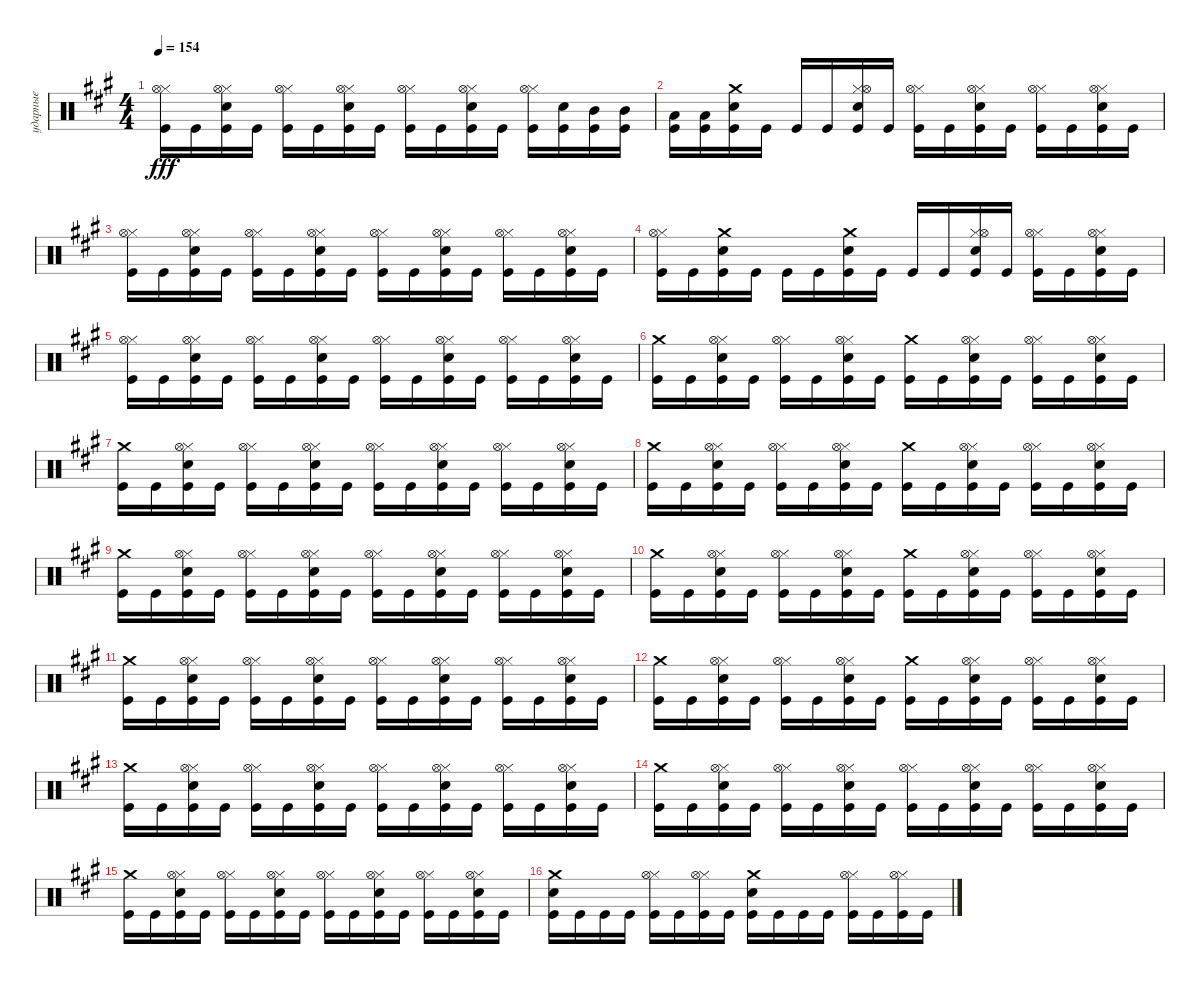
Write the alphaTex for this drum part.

\track ("ударные" "ударные") {instrument percussion}
\staff {score}
\articulation defaults
\ts (4 4)
\tempo 154
\clef neutral
\ks f#minor
("Kick (hit)" "Hi-Hat (closed)" "Hi-Hat (open)").16{dy fff} "Kick (hit)".16 ("Kick (hit)" "Snare (hit) 2" "Hi-Hat (closed)" "Hi-Hat (open)").16 "Kick (hit)".16 ("Kick (hit)" "Hi-Hat (closed)" "Hi-Hat (open)").16 "Kick (hit)".16 ("Kick (hit)" "Snare (hit) 2" "Hi-Hat (closed)" "Hi-Hat (open)").16 "Kick (hit)".16 ("Kick (hit)" "Hi-Hat (closed)" "Hi-Hat (open)").16 "Kick (hit)".16 ("Kick (hit)" "Snare (hit) 2" "Hi-Hat (closed)" "Hi-Hat (open)").16 "Kick (hit)".16 ("Hi-Hat (closed)" "Kick (hit)" "Hi-Hat (open)").16 ("Snare (hit) 2" "Kick (hit)").16 ("Mid Tom (hit)" "Kick (hit)").16 ("Mid Tom (hit)" "Kick (hit)").16 |
("Low Tom (hit)" "Kick (hit)").16 ("Low Tom (hit)" "Kick (hit)").16 ("Crash medium (hit)" "Kick (hit)" "Snare (hit) 2").16 "Kick (hit)".16 "Kick (hit)".16 "Kick (hit)".16 ("Kick (hit)" "Snare (hit) 2" "Hi-Hat (closed)" "Hi-Hat (open)").16 "Kick (hit)".16 ("Kick (hit)" "Hi-Hat (closed)" "Hi-Hat (open)").16 "Kick (hit)".16 ("Kick (hit)" "Snare (hit) 2" "Hi-Hat (closed)" "Hi-Hat (open)").16 "Kick (hit)".16 ("Kick (hit)" "Hi-Hat (closed)" "Hi-Hat (open)").16 "Kick (hit)".16 ("Kick (hit)" "Snare (hit) 2" "Hi-Hat (closed)" "Hi-Hat (open)").16 "Kick (hit)".16 |
("Kick (hit)" "Hi-Hat (closed)" "Hi-Hat (open)").16 "Kick (hit)".16 ("Kick (hit)" "Snare (hit) 2" "Hi-Hat (closed)" "Hi-Hat (open)").16 "Kick (hit)".16 ("Kick (hit)" "Hi-Hat (closed)" "Hi-Hat (open)").16 "Kick (hit)".16 ("Kick (hit)" "Snare (hit) 2" "Hi-Hat (closed)" "Hi-Hat (open)").16 "Kick (hit)".16 ("Kick (hit)" "Hi-Hat (closed)" "Hi-Hat (open)").16 "Kick (hit)".16 ("Kick (hit)" "Snare (hit) 2" "Hi-Hat (closed)" "Hi-Hat (open)").16 "Kick (hit)".16 ("Kick (hit)" "Hi-Hat (closed)" "Hi-Hat (open)").16 "Kick (hit)".16 ("Kick (hit)" "Snare (hit) 2" "Hi-Hat (closed)" "Hi-Hat (open)").16 "Kick (hit)".16 |
("Kick (hit)" "Hi-Hat (closed)" "Hi-Hat (open)").16 "Kick (hit)".16 ("Crash medium (hit)" "Kick (hit)" "Snare (hit) 2").16 "Kick (hit)".16 "Kick (hit)".16 "Kick (hit)".16 ("Crash medium (hit)" "Kick (hit)" "Snare (hit) 2").16 "Kick (hit)".16 "Kick (hit)".16 "Kick (hit)".16 ("Kick (hit)" "Snare (hit) 2" "Hi-Hat (closed)" "Hi-Hat (open)").16 "Kick (hit)".16 ("Kick (hit)" "Hi-Hat (closed)" "Hi-Hat (open)").16 "Kick (hit)".16 ("Kick (hit)" "Snare (hit) 2" "Hi-Hat (closed)" "Hi-Hat (open)").16 "Kick (hit)".16 |
("Kick (hit)" "Hi-Hat (closed)" "Hi-Hat (open)").16 "Kick (hit)".16 ("Kick (hit)" "Snare (hit) 2" "Hi-Hat (closed)" "Hi-Hat (open)").16 "Kick (hit)".16 ("Kick (hit)" "Hi-Hat (closed)" "Hi-Hat (open)").16 "Kick (hit)".16 ("Kick (hit)" "Snare (hit) 2" "Hi-Hat (closed)" "Hi-Hat (open)").16 "Kick (hit)".16 ("Kick (hit)" "Hi-Hat (closed)" "Hi-Hat (open)").16 "Kick (hit)".16 ("Kick (hit)" "Snare (hit) 2" "Hi-Hat (closed)" "Hi-Hat (open)").16 "Kick (hit)".16 ("Kick (hit)" "Hi-Hat (closed)" "Hi-Hat (open)").16 "Kick (hit)".16 ("Kick (hit)" "Snare (hit) 2" "Hi-Hat (closed)" "Hi-Hat (open)").16 "Kick (hit)".16 |
("Crash medium (hit)" "Kick (hit)").16 "Kick (hit)".16 ("Kick (hit)" "Snare (hit) 2" "Hi-Hat (closed)" "Hi-Hat (open)").16 "Kick (hit)".16 ("Kick (hit)" "Hi-Hat (closed)" "Hi-Hat (open)").16 "Kick (hit)".16 ("Kick (hit)" "Snare (hit) 2" "Hi-Hat (closed)" "Hi-Hat (open)").16 "Kick (hit)".16 ("Crash medium (hit)" "Kick (hit)").16 "Kick (hit)".16 ("Kick (hit)" "Snare (hit) 2" "Hi-Hat (closed)" "Hi-Hat (open)").16 "Kick (hit)".16 ("Kick (hit)" "Hi-Hat (closed)" "Hi-Hat (open)").16 "Kick (hit)".16 ("Kick (hit)" "Snare (hit) 2" "Hi-Hat (closed)" "Hi-Hat (open)").16 "Kick (hit)".16 |
("Crash medium (hit)" "Kick (hit)").16 "Kick (hit)".16 ("Kick (hit)" "Snare (hit) 2" "Hi-Hat (closed)" "Hi-Hat (open)").16 "Kick (hit)".16 ("Kick (hit)" "Hi-Hat (closed)" "Hi-Hat (open)").16 "Kick (hit)".16 ("Kick (hit)" "Snare (hit) 2" "Hi-Hat (closed)" "Hi-Hat (open)").16 "Kick (hit)".16 ("Kick (hit)" "Hi-Hat (closed)" "Hi-Hat (open)").16 "Kick (hit)".16 ("Kick (hit)" "Snare (hit) 2" "Hi-Hat (closed)" "Hi-Hat (open)").16 "Kick (hit)".16 ("Kick (hit)" "Hi-Hat (closed)" "Hi-Hat (open)").16 "Kick (hit)".16 ("Kick (hit)" "Snare (hit) 2" "Hi-Hat (closed)" "Hi-Hat (open)").16 "Kick (hit)".16 |
("Crash medium (hit)" "Kick (hit)").16 "Kick (hit)".16 ("Kick (hit)" "Snare (hit) 2" "Hi-Hat (closed)" "Hi-Hat (open)").16 "Kick (hit)".16 ("Kick (hit)" "Hi-Hat (closed)" "Hi-Hat (open)").16 "Kick (hit)".16 ("Kick (hit)" "Snare (hit) 2" "Hi-Hat (closed)" "Hi-Hat (open)").16 "Kick (hit)".16 ("Crash medium (hit)" "Kick (hit)").16 "Kick (hit)".16 ("Kick (hit)" "Snare (hit) 2" "Hi-Hat (closed)" "Hi-Hat (open)").16 "Kick (hit)".16 ("Kick (hit)" "Hi-Hat (closed)" "Hi-Hat (open)").16 "Kick (hit)".16 ("Kick (hit)" "Snare (hit) 2" "Hi-Hat (closed)" "Hi-Hat (open)").16 "Kick (hit)".16 |
("Crash medium (hit)" "Kick (hit)").16 "Kick (hit)".16 ("Kick (hit)" "Snare (hit) 2" "Hi-Hat (closed)" "Hi-Hat (open)").16 "Kick (hit)".16 ("Kick (hit)" "Hi-Hat (closed)" "Hi-Hat (open)").16 "Kick (hit)".16 ("Kick (hit)" "Snare (hit) 2" "Hi-Hat (closed)" "Hi-Hat (open)").16 "Kick (hit)".16 ("Kick (hit)" "Hi-Hat (closed)" "Hi-Hat (open)").16 "Kick (hit)".16 ("Kick (hit)" "Snare (hit) 2" "Hi-Hat (closed)" "Hi-Hat (open)").16 "Kick (hit)".16 ("Kick (hit)" "Hi-Hat (closed)" "Hi-Hat (open)").16 "Kick (hit)".16 ("Kick (hit)" "Snare (hit) 2" "Hi-Hat (closed)" "Hi-Hat (open)").16 "Kick (hit)".16 |
("Crash medium (hit)" "Kick (hit)").16 "Kick (hit)".16 ("Kick (hit)" "Snare (hit) 2" "Hi-Hat (closed)" "Hi-Hat (open)").16 "Kick (hit)".16 ("Kick (hit)" "Hi-Hat (closed)" "Hi-Hat (open)").16 "Kick (hit)".16 ("Kick (hit)" "Snare (hit) 2" "Hi-Hat (closed)" "Hi-Hat (open)").16 "Kick (hit)".16 ("Crash medium (hit)" "Kick (hit)").16 "Kick (hit)".16 ("Kick (hit)" "Snare (hit) 2" "Hi-Hat (closed)" "Hi-Hat (open)").16 "Kick (hit)".16 ("Kick (hit)" "Hi-Hat (closed)" "Hi-Hat (open)").16 "Kick (hit)".16 ("Kick (hit)" "Snare (hit) 2" "Hi-Hat (closed)" "Hi-Hat (open)").16 "Kick (hit)".16 |
("Crash medium (hit)" "Kick (hit)").16 "Kick (hit)".16 ("Kick (hit)" "Snare (hit) 2" "Hi-Hat (closed)" "Hi-Hat (open)").16 "Kick (hit)".16 ("Kick (hit)" "Hi-Hat (closed)" "Hi-Hat (open)").16 "Kick (hit)".16 ("Kick (hit)" "Snare (hit) 2" "Hi-Hat (closed)" "Hi-Hat (open)").16 "Kick (hit)".16 ("Kick (hit)" "Hi-Hat (closed)" "Hi-Hat (open)").16 "Kick (hit)".16 ("Kick (hit)" "Snare (hit) 2" "Hi-Hat (closed)" "Hi-Hat (open)").16 "Kick (hit)".16 ("Kick (hit)" "Hi-Hat (closed)" "Hi-Hat (open)").16 "Kick (hit)".16 ("Kick (hit)" "Snare (hit) 2" "Hi-Hat (closed)" "Hi-Hat (open)").16 "Kick (hit)".16 |
("Crash medium (hit)" "Kick (hit)").16 "Kick (hit)".16 ("Kick (hit)" "Snare (hit) 2" "Hi-Hat (closed)" "Hi-Hat (open)").16 "Kick (hit)".16 ("Kick (hit)" "Hi-Hat (closed)" "Hi-Hat (open)").16 "Kick (hit)".16 ("Kick (hit)" "Snare (hit) 2" "Hi-Hat (closed)" "Hi-Hat (open)").16 "Kick (hit)".16 ("Crash medium (hit)" "Kick (hit)").16 "Kick (hit)".16 ("Kick (hit)" "Snare (hit) 2" "Hi-Hat (closed)" "Hi-Hat (open)").16 "Kick (hit)".16 ("Kick (hit)" "Hi-Hat (closed)" "Hi-Hat (open)").16 "Kick (hit)".16 ("Kick (hit)" "Snare (hit) 2" "Hi-Hat (closed)" "Hi-Hat (open)").16 "Kick (hit)".16 |
("Crash medium (hit)" "Kick (hit)").16 "Kick (hit)".16 ("Kick (hit)" "Snare (hit) 2" "Hi-Hat (closed)" "Hi-Hat (open)").16 "Kick (hit)".16 ("Kick (hit)" "Hi-Hat (closed)" "Hi-Hat (open)").16 "Kick (hit)".16 ("Kick (hit)" "Snare (hit) 2" "Hi-Hat (closed)" "Hi-Hat (open)").16 "Kick (hit)".16 ("Kick (hit)" "Hi-Hat (closed)" "Hi-Hat (open)").16 "Kick (hit)".16 ("Kick (hit)" "Snare (hit) 2" "Hi-Hat (closed)" "Hi-Hat (open)").16 "Kick (hit)".16 ("Kick (hit)" "Hi-Hat (closed)" "Hi-Hat (open)").16 "Kick (hit)".16 ("Kick (hit)" "Snare (hit) 2" "Hi-Hat (closed)" "Hi-Hat (open)").16 "Kick (hit)".16 |
("Crash medium (hit)" "Kick (hit)").16 "Kick (hit)".16 ("Kick (hit)" "Snare (hit) 2" "Hi-Hat (closed)" "Hi-Hat (open)").16 "Kick (hit)".16 ("Kick (hit)" "Hi-Hat (closed)" "Hi-Hat (open)").16 "Kick (hit)".16 ("Kick (hit)" "Snare (hit) 2" "Hi-Hat (closed)" "Hi-Hat (open)").16 "Kick (hit)".16 ("Kick (hit)" "Hi-Hat (closed)" "Hi-Hat (open)").16 "Kick (hit)".16 ("Kick (hit)" "Snare (hit) 2" "Hi-Hat (closed)" "Hi-Hat (open)").16 "Kick (hit)".16 ("Kick (hit)" "Hi-Hat (closed)" "Hi-Hat (open)").16 "Kick (hit)".16 ("Kick (hit)" "Snare (hit) 2" "Hi-Hat (closed)" "Hi-Hat (open)").16 "Kick (hit)".16 |
("Crash medium (hit)" "Kick (hit)").16 "Kick (hit)".16 ("Kick (hit)" "Snare (hit) 2" "Hi-Hat (closed)" "Hi-Hat (open)").16 "Kick (hit)".16 ("Kick (hit)" "Hi-Hat (closed)" "Hi-Hat (open)").16 "Kick (hit)".16 ("Kick (hit)" "Snare (hit) 2" "Hi-Hat (closed)" "Hi-Hat (open)").16 "Kick (hit)".16 ("Kick (hit)" "Hi-Hat (closed)" "Hi-Hat (open)").16 "Kick (hit)".16 ("Kick (hit)" "Snare (hit) 2" "Hi-Hat (closed)" "Hi-Hat (open)").16 "Kick (hit)".16 ("Kick (hit)" "Hi-Hat (closed)" "Hi-Hat (open)").16 "Kick (hit)".16 ("Kick (hit)" "Snare (hit) 2" "Hi-Hat (closed)" "Hi-Hat (open)").16 "Kick (hit)".16 |
("Crash medium (hit)" "Snare (hit) 2" "Kick (hit)").16 "Kick (hit)".16 "Kick (hit)".16 "Kick (hit)".16 ("Kick (hit)" "Hi-Hat (closed)" "Hi-Hat (open)").16 "Kick (hit)".16 ("Kick (hit)" "Hi-Hat (closed)" "Hi-Hat (open)").16 "Kick (hit)".16 ("Crash medium (hit)" "Snare (hit) 2" "Kick (hit)").16 "Kick (hit)".16 "Kick (hit)".16 "Kick (hit)".16 ("Kick (hit)" "Hi-Hat (closed)" "Hi-Hat (open)").16 "Kick (hit)".16 ("Kick (hit)" "Hi-Hat (closed)" "Hi-Hat (open)").16 "Kick (hit)".16
